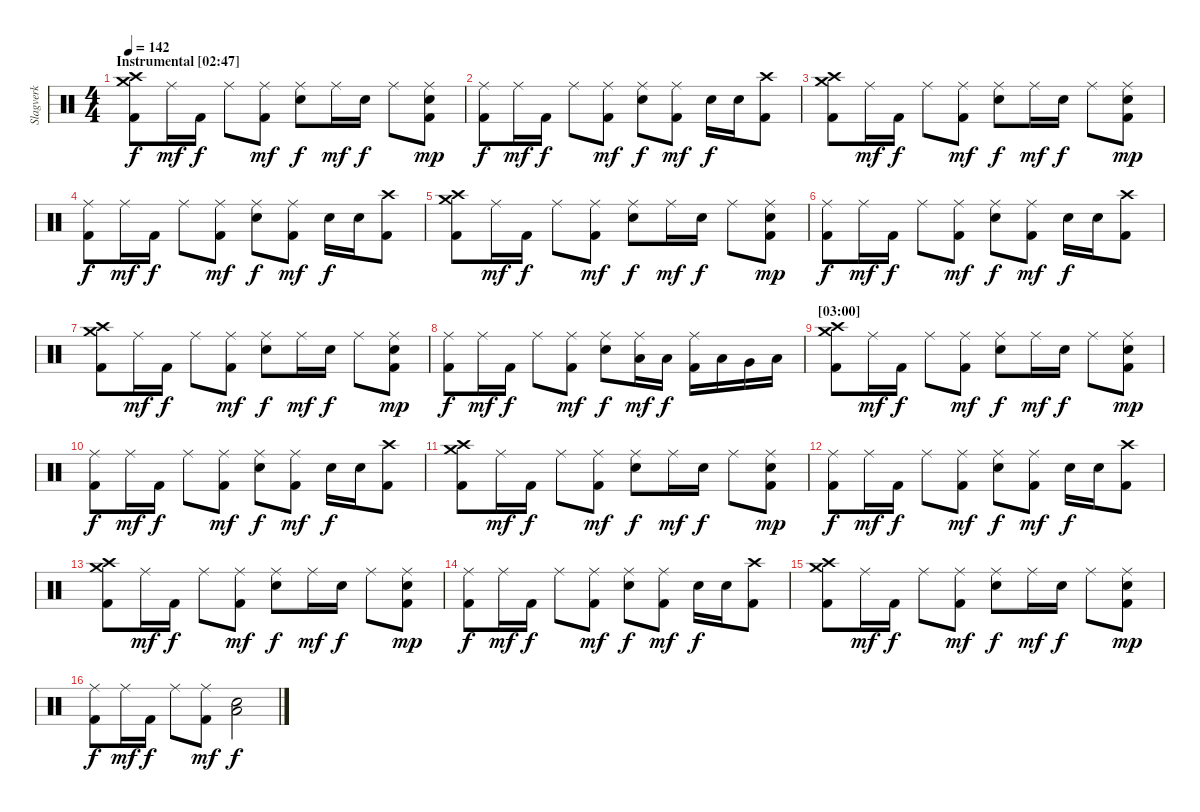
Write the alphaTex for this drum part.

\track ("Slagverk" "Slagverk") {instrument percussion}
\staff {score}
\articulation defaults
\ts (4 4)
\section ("" "Instrumental [02:47]")
\tempo 142
\clef neutral
\ks c
("Crash medium (hit)" "Crash high (hit)" "Kick (hit) 2").8{dy f} "Ride (middle)".16{dy mf} "Kick (hit) 2".16{dy f} "Ride (middle)".8 ("Ride (middle)" "Kick (hit) 2").8{dy mf} ("Ride (middle)" "Electric Snare (hit)").8{dy f} "Ride (middle)".16{dy mf} "Electric Snare (hit)".16{dy f} "Ride (middle)".8 ("Ride (middle)" "Electric Snare (hit)" "Kick (hit) 2").8{dy mp} |
("Ride (middle)" "Kick (hit) 2").8{dy f} "Ride (middle)".16{dy mf} "Kick (hit) 2".16{dy f} "Ride (middle)".8 ("Ride (middle)" "Kick (hit) 2").8{dy mf} ("Ride (middle)" "Electric Snare (hit)").8{dy f} ("Ride (middle)" "Kick (hit) 2").8{dy mf} "Electric Snare (hit)".16{dy f} "Electric Snare (hit)".16 ("Crash high (hit)" "Kick (hit) 2").8 |
("Crash medium (hit)" "Crash high (hit)" "Kick (hit) 2").8 "Ride (middle)".16{dy mf} "Kick (hit) 2".16{dy f} "Ride (middle)".8 ("Ride (middle)" "Kick (hit) 2").8{dy mf} ("Ride (middle)" "Electric Snare (hit)").8{dy f} "Ride (middle)".16{dy mf} "Electric Snare (hit)".16{dy f} "Ride (middle)".8 ("Ride (middle)" "Electric Snare (hit)" "Kick (hit) 2").8{dy mp} |
("Ride (middle)" "Kick (hit) 2").8{dy f} "Ride (middle)".16{dy mf} "Kick (hit) 2".16{dy f} "Ride (middle)".8 ("Ride (middle)" "Kick (hit) 2").8{dy mf} ("Ride (middle)" "Electric Snare (hit)").8{dy f} ("Ride (middle)" "Kick (hit) 2").8{dy mf} "Electric Snare (hit)".16{dy f} "Electric Snare (hit)".16 ("Crash high (hit)" "Kick (hit) 2").8 |
("Crash medium (hit)" "Crash high (hit)" "Kick (hit) 2").8 "Ride (middle)".16{dy mf} "Kick (hit) 2".16{dy f} "Ride (middle)".8 ("Ride (middle)" "Kick (hit) 2").8{dy mf} ("Ride (middle)" "Electric Snare (hit)").8{dy f} "Ride (middle)".16{dy mf} "Electric Snare (hit)".16{dy f} "Ride (middle)".8 ("Ride (middle)" "Electric Snare (hit)" "Kick (hit) 2").8{dy mp} |
("Ride (middle)" "Kick (hit) 2").8{dy f} "Ride (middle)".16{dy mf} "Kick (hit) 2".16{dy f} "Ride (middle)".8 ("Ride (middle)" "Kick (hit) 2").8{dy mf} ("Ride (middle)" "Electric Snare (hit)").8{dy f} ("Ride (middle)" "Kick (hit) 2").8{dy mf} "Electric Snare (hit)".16{dy f} "Electric Snare (hit)".16 ("Crash high (hit)" "Kick (hit) 2").8 |
("Crash medium (hit)" "Crash high (hit)" "Kick (hit) 2").8 "Ride (middle)".16{dy mf} "Kick (hit) 2".16{dy f} "Ride (middle)".8 ("Ride (middle)" "Kick (hit) 2").8{dy mf} ("Ride (middle)" "Electric Snare (hit)").8{dy f} "Ride (middle)".16{dy mf} "Electric Snare (hit)".16{dy f} "Ride (middle)".8 ("Ride (middle)" "Electric Snare (hit)" "Kick (hit) 2").8{dy mp} |
("Ride (middle)" "Kick (hit) 2").8{dy f} "Ride (middle)".16{dy mf} "Kick (hit) 2".16{dy f} "Ride (middle)".8 ("Ride (middle)" "Kick (hit) 2").8{dy mf} ("Ride (middle)" "Electric Snare (hit)").8{dy f} ("Ride (middle)" "Low Tom (hit)").16{dy mf} "Low Tom (hit)".16{dy f} ("Ride (middle)" "Kick (hit) 2").16 "Low Tom (hit)".16 "Very Low Tom (hit)".16 "Low Tom (hit)".16 |
\section ("" "[03:00]")
("Crash medium (hit)" "Crash high (hit)" "Kick (hit) 2").8 "Ride (middle)".16{dy mf} "Kick (hit) 2".16{dy f} "Ride (middle)".8 ("Ride (middle)" "Kick (hit) 2").8{dy mf} ("Ride (middle)" "Electric Snare (hit)").8{dy f} "Ride (middle)".16{dy mf} "Electric Snare (hit)".16{dy f} "Ride (middle)".8 ("Ride (middle)" "Electric Snare (hit)" "Kick (hit) 2").8{dy mp} |
("Ride (middle)" "Kick (hit) 2").8{dy f} "Ride (middle)".16{dy mf} "Kick (hit) 2".16{dy f} "Ride (middle)".8 ("Ride (middle)" "Kick (hit) 2").8{dy mf} ("Ride (middle)" "Electric Snare (hit)").8{dy f} ("Ride (middle)" "Kick (hit) 2").8{dy mf} "Electric Snare (hit)".16{dy f} "Electric Snare (hit)".16 ("Crash high (hit)" "Kick (hit) 2").8 |
("Crash medium (hit)" "Crash high (hit)" "Kick (hit) 2").8 "Ride (middle)".16{dy mf} "Kick (hit) 2".16{dy f} "Ride (middle)".8 ("Ride (middle)" "Kick (hit) 2").8{dy mf} ("Ride (middle)" "Electric Snare (hit)").8{dy f} "Ride (middle)".16{dy mf} "Electric Snare (hit)".16{dy f} "Ride (middle)".8 ("Ride (middle)" "Electric Snare (hit)" "Kick (hit) 2").8{dy mp} |
("Ride (middle)" "Kick (hit) 2").8{dy f} "Ride (middle)".16{dy mf} "Kick (hit) 2".16{dy f} "Ride (middle)".8 ("Ride (middle)" "Kick (hit) 2").8{dy mf} ("Ride (middle)" "Electric Snare (hit)").8{dy f} ("Ride (middle)" "Kick (hit) 2").8{dy mf} "Electric Snare (hit)".16{dy f} "Electric Snare (hit)".16 ("Crash high (hit)" "Kick (hit) 2").8 |
("Crash medium (hit)" "Crash high (hit)" "Kick (hit) 2").8 "Ride (middle)".16{dy mf} "Kick (hit) 2".16{dy f} "Ride (middle)".8 ("Ride (middle)" "Kick (hit) 2").8{dy mf} ("Ride (middle)" "Electric Snare (hit)").8{dy f} "Ride (middle)".16{dy mf} "Electric Snare (hit)".16{dy f} "Ride (middle)".8 ("Ride (middle)" "Electric Snare (hit)" "Kick (hit) 2").8{dy mp} |
("Ride (middle)" "Kick (hit) 2").8{dy f} "Ride (middle)".16{dy mf} "Kick (hit) 2".16{dy f} "Ride (middle)".8 ("Ride (middle)" "Kick (hit) 2").8{dy mf} ("Ride (middle)" "Electric Snare (hit)").8{dy f} ("Ride (middle)" "Kick (hit) 2").8{dy mf} "Electric Snare (hit)".16{dy f} "Electric Snare (hit)".16 ("Crash high (hit)" "Kick (hit) 2").8 |
("Crash medium (hit)" "Crash high (hit)" "Kick (hit) 2").8 "Ride (middle)".16{dy mf} "Kick (hit) 2".16{dy f} "Ride (middle)".8 ("Ride (middle)" "Kick (hit) 2").8{dy mf} ("Ride (middle)" "Electric Snare (hit)").8{dy f} "Ride (middle)".16{dy mf} "Electric Snare (hit)".16{dy f} "Ride (middle)".8 ("Ride (middle)" "Electric Snare (hit)" "Kick (hit) 2").8{dy mp} |
("Ride (middle)" "Kick (hit) 2").8{dy f} "Ride (middle)".16{dy mf} "Kick (hit) 2".16{dy f} "Ride (middle)".8 ("Ride (middle)" "Kick (hit) 2").8{dy mf} ("Low Floor Tom (hit)" "Electric Snare (hit)").2{dy f}
